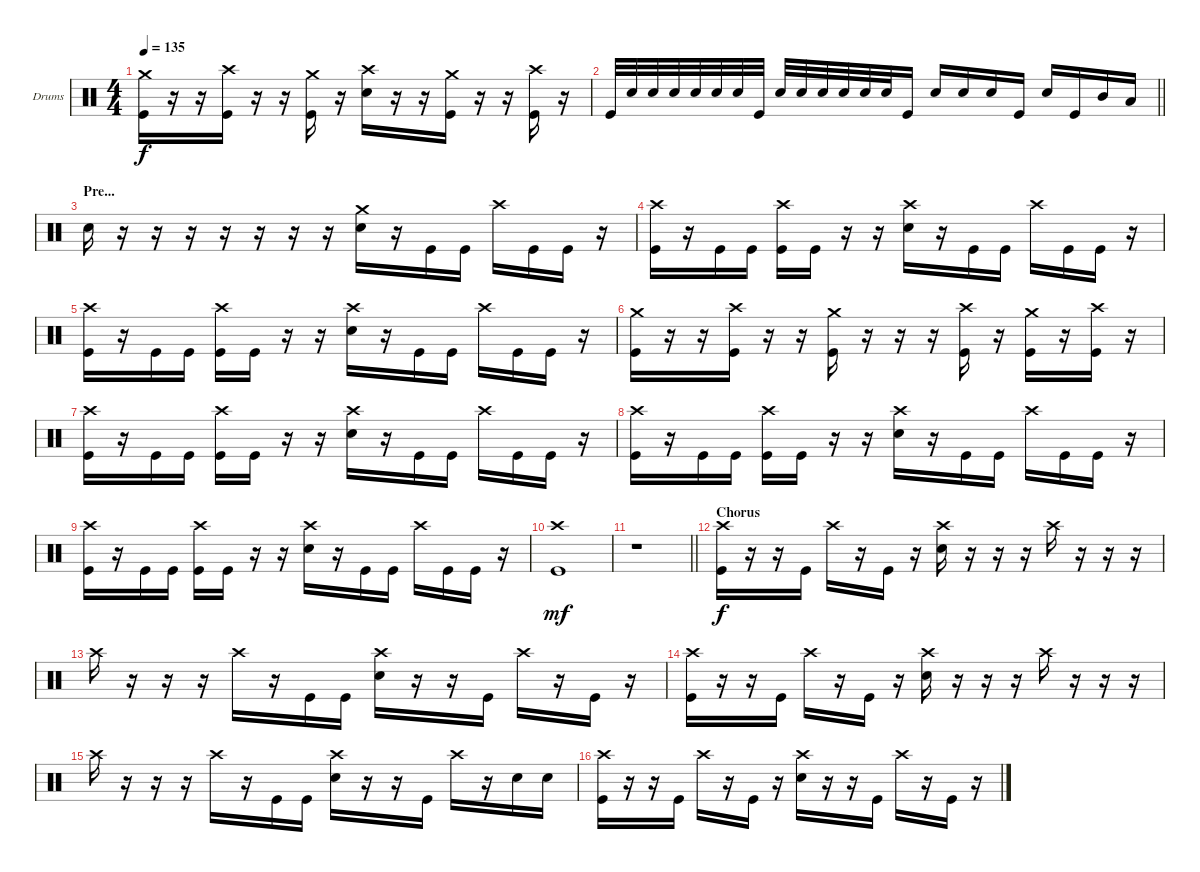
\bracketExtendMode groupsimilarinstruments
\firstSystemTrackNameOrientation horizontal
\otherSystemsTrackNameOrientation horizontal
\track ("Drumkit" "Drums") {instrument percussion}
\staff {score}
\articulation defaults
\ts (4 4)
\tempo 135
\clef neutral
\ks c
("Crash medium (hit)" "Kick (hit)").16{dy f} r.16 r.16 ("Crash high (hit)" "Kick (hit)").16 r.16 r.16 ("Crash medium (hit)" "Kick (hit)").16 r.16 ("Crash high (hit)" "Snare (hit) 2").16 r.16 r.16 ("Crash medium (hit)" "Kick (hit)").16 r.16 r.16 ("Crash high (hit)" "Kick (hit)").16 r.16 |
\barLineRight lightlight "Kick (hit)".32 "Snare (hit) 2".32 "Snare (hit) 2".32 "Snare (hit) 2".32 "Snare (hit) 2".32 "Snare (hit) 2".32 "Snare (hit) 2".32 "Kick (hit)".32 "Snare (hit) 2".32 "Snare (hit) 2".32 "Snare (hit) 2".32 "Snare (hit) 2".32 "Snare (hit) 2".32 "Snare (hit) 2".32 "Kick (hit)".16 "Snare (hit) 2".16 "Snare (hit) 2".16 "Snare (hit) 2".16 "Kick (hit)".16 "Snare (hit) 2".16 "Kick (hit)".16 "Mid Tom (hit)".16 "Low Tom (hit)".16
|
\section ("" "Pre...")
"Snare (hit) 2".16 r.16 r.16 r.16 r.16 r.16 r.16 r.16 ("Crash medium (hit)" "Snare (hit) 2").16 r.16 "Kick (hit)".16 "Kick (hit)".16 "Crash high (hit)".16 "Kick (hit)".16 "Kick (hit)".16 r.16 |
("Crash high (hit)" "Kick (hit)").16 r.16 "Kick (hit)".16 "Kick (hit)".16 ("Crash high (hit)" "Kick (hit)").16 "Kick (hit)".16 r.16 r.16 ("Crash high (hit)" "Snare (hit) 2").16 r.16 "Kick (hit)".16 "Kick (hit)".16 "Crash high (hit)".16 "Kick (hit)".16 "Kick (hit)".16 r.16 |
("Crash high (hit)" "Kick (hit)").16 r.16 "Kick (hit)".16 "Kick (hit)".16 ("Crash high (hit)" "Kick (hit)").16 "Kick (hit)".16 r.16 r.16 ("Crash high (hit)" "Snare (hit) 2").16 r.16 "Kick (hit)".16 "Kick (hit)".16 "Crash high (hit)".16 "Kick (hit)".16 "Kick (hit)".16 r.16 |
("Crash medium (hit)" "Kick (hit)").16 r.16 r.16 ("Crash high (hit)" "Kick (hit)").16 r.16 r.16 ("Crash medium (hit)" "Kick (hit)").16 r.16 r.16 r.16 ("Crash high (hit)" "Kick (hit)").16 r.16 ("Crash medium (hit)" "Kick (hit)").16 r.16 ("Crash high (hit)" "Kick (hit)").16 r.16 |
("Crash high (hit)" "Kick (hit)").16 r.16 "Kick (hit)".16 "Kick (hit)".16 ("Crash high (hit)" "Kick (hit)").16 "Kick (hit)".16 r.16 r.16 ("Crash high (hit)" "Snare (hit) 2").16 r.16 "Kick (hit)".16 "Kick (hit)".16 "Crash high (hit)".16 "Kick (hit)".16 "Kick (hit)".16 r.16 |
("Crash high (hit)" "Kick (hit)").16 r.16 "Kick (hit)".16 "Kick (hit)".16 ("Crash high (hit)" "Kick (hit)").16 "Kick (hit)".16 r.16 r.16 ("Crash high (hit)" "Snare (hit) 2").16 r.16 "Kick (hit)".16 "Kick (hit)".16 "Crash high (hit)".16 "Kick (hit)".16 "Kick (hit)".16 r.16 |
("Crash high (hit)" "Kick (hit)").16 r.16 "Kick (hit)".16 "Kick (hit)".16 ("Crash high (hit)" "Kick (hit)").16 "Kick (hit)".16 r.16 r.16 ("Crash high (hit)" "Snare (hit) 2").16 r.16 "Kick (hit)".16 "Kick (hit)".16 "Crash high (hit)".16 "Kick (hit)".16 "Kick (hit)".16 r.16 |
("Crash high (hit)" "Kick (hit)").1{dy mf} |
\barLineRight lightlight
r.1 |
\section ("" "Chorus")
("Crash high (hit)" "Kick (hit)").16{dy f} r.16 r.16 "Kick (hit)".16 "Crash high (hit)".16 r.16 "Kick (hit)".16 r.16 ("Crash high (hit)" "Snare (hit) 2").16 r.16 r.16 r.16 "Crash high (hit)".16 r.16 r.16 r.16 |
"Crash high (hit)".16 r.16 r.16 r.16 "Crash high (hit)".16 r.16 "Kick (hit)".16 "Kick (hit)".16 ("Crash high (hit)" "Snare (hit) 2").16 r.16 r.16 "Kick (hit)".16 "Crash high (hit)".16 r.16 "Kick (hit)".16 r.16 |
("Crash high (hit)" "Kick (hit)").16 r.16 r.16 "Kick (hit)".16 "Crash high (hit)".16 r.16 "Kick (hit)".16 r.16 ("Crash high (hit)" "Snare (hit) 2").16 r.16 r.16 r.16 "Crash high (hit)".16 r.16 r.16 r.16 |
"Crash high (hit)".16 r.16 r.16 r.16 "Crash high (hit)".16 r.16 "Kick (hit)".16 "Kick (hit)".16 ("Crash high (hit)" "Snare (hit) 2").16 r.16 r.16 "Kick (hit)".16 "Crash high (hit)".16 r.16 "Snare (hit) 2".16 "Snare (hit) 2".16 |
("Crash high (hit)" "Kick (hit)").16 r.16 r.16 "Kick (hit)".16 "Crash high (hit)".16 r.16 "Kick (hit)".16 r.16 ("Crash high (hit)" "Snare (hit) 2").16 r.16 r.16 "Kick (hit)".16 "Crash high (hit)".16 r.16 "Kick (hit)".16 r.16
